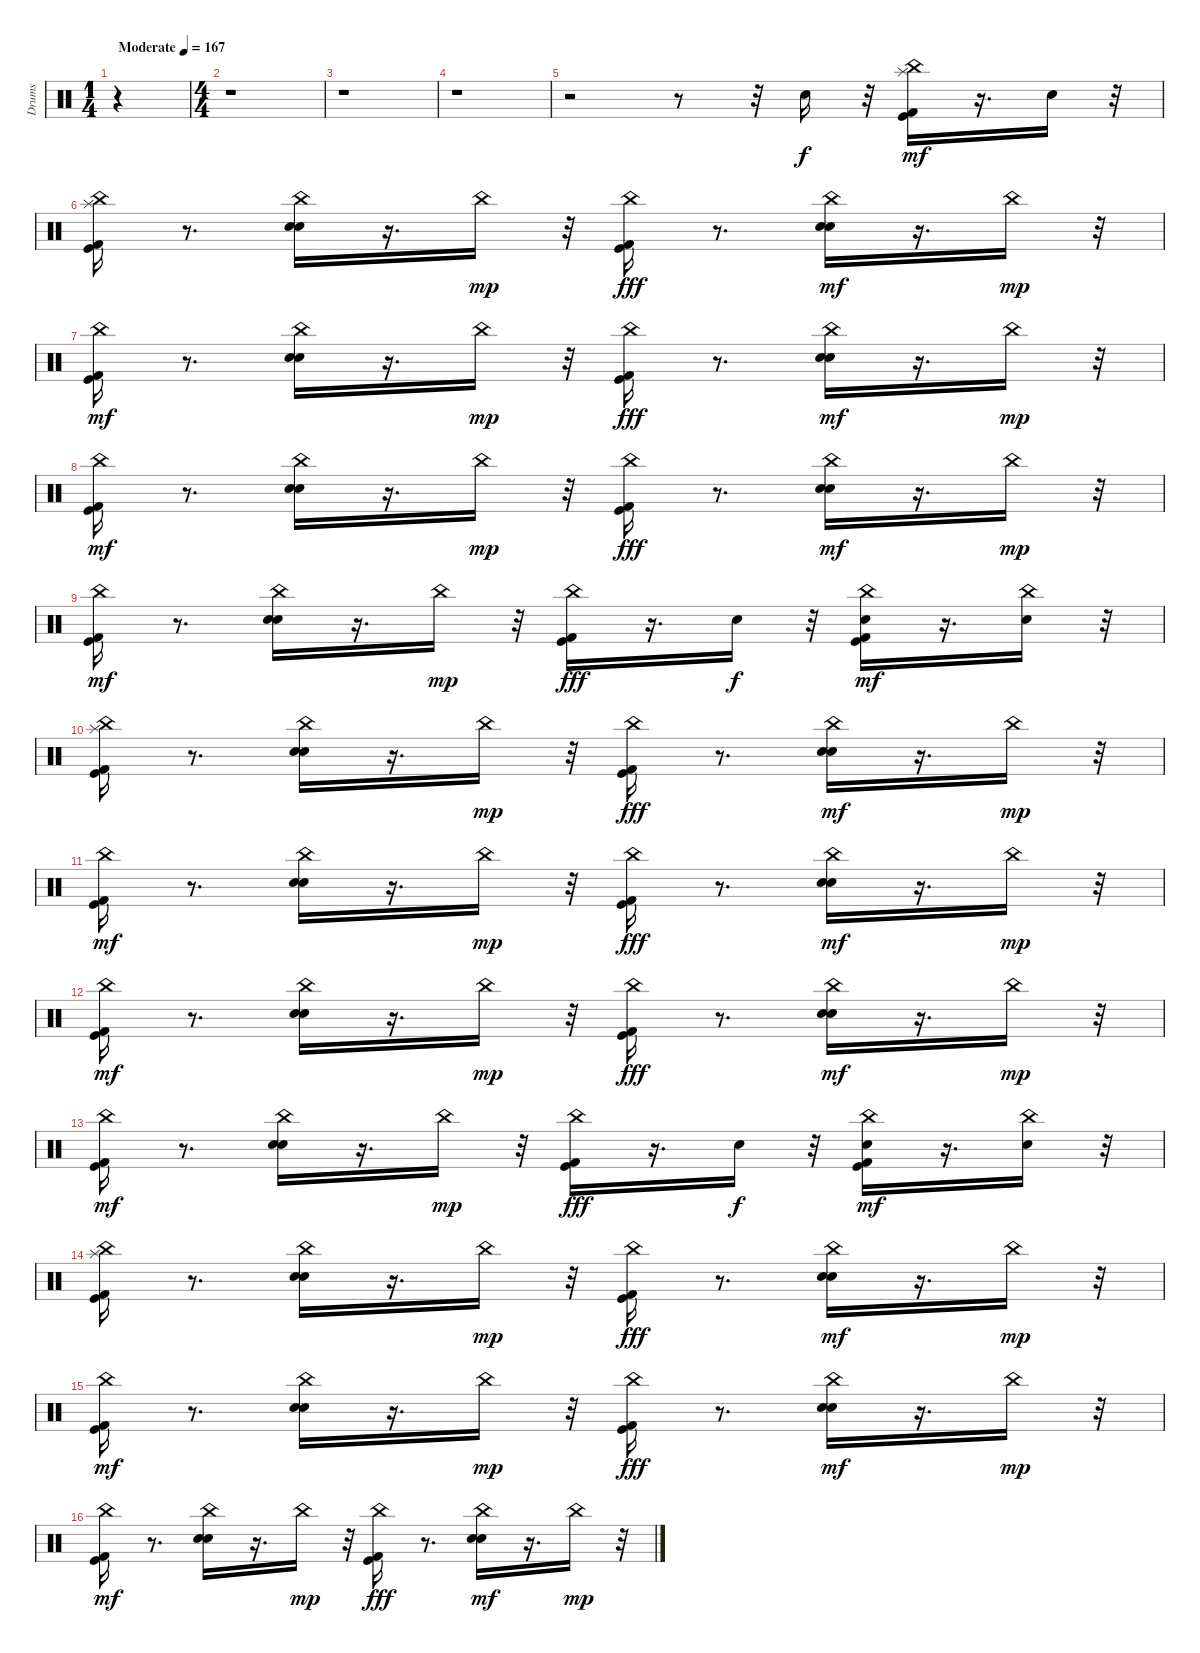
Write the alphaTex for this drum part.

\track ("Drums" "Drums") {instrument percussion}
\staff {score}
\articulation defaults
\ts (1 4)
\tempo (167 "Moderate")
\clef neutral
\ks c
r.4{dy f} |
\ts (4 4)
r.1 |
r.1 |
r.1 |
r.2 r.8 r.32 "Snare (hit) 2".16 r.32 ("China (hit)" "Kick (hit) 2" "Kick (hit)" "Splash (hit)").16{dy mf} r.16{d} "Snare (hit) 2".16 r.32 |
("Kick (hit) 2" "Kick (hit)" "Splash (hit)" "China (hit)").16 r.8{d} ("Snare (hit) 2" "China (hit)" "Hand Clap (hit)").16 r.16{d} "China (hit)".16{dy mp} r.32 ("China (hit)" "Kick (hit) 2" "Kick (hit)").16{dy fff} r.8{d} ("Snare (hit) 2" "China (hit)" "Hand Clap (hit)").16{dy mf} r.16{d} "China (hit)".16{dy mp} r.32 |
("Kick (hit) 2" "Kick (hit)" "China (hit)").16{dy mf} r.8{d} ("Snare (hit) 2" "China (hit)" "Hand Clap (hit)").16 r.16{d} "China (hit)".16{dy mp} r.32 ("China (hit)" "Kick (hit) 2" "Kick (hit)").16{dy fff} r.8{d} ("Snare (hit) 2" "China (hit)" "Hand Clap (hit)").16{dy mf} r.16{d} "China (hit)".16{dy mp} r.32 |
("Kick (hit) 2" "Kick (hit)" "China (hit)").16{dy mf} r.8{d} ("Snare (hit) 2" "China (hit)" "Hand Clap (hit)").16 r.16{d} "China (hit)".16{dy mp} r.32 ("China (hit)" "Kick (hit) 2" "Kick (hit)").16{dy fff} r.8{d} ("Snare (hit) 2" "China (hit)" "Hand Clap (hit)").16{dy mf} r.16{d} "China (hit)".16{dy mp} r.32 |
("Kick (hit) 2" "Kick (hit)" "China (hit)").16{dy mf} r.8{d} ("Snare (hit) 2" "China (hit)" "Hand Clap (hit)").16 r.16{d} "China (hit)".16{dy mp} r.32 ("China (hit)" "Kick (hit) 2" "Kick (hit)").16{dy fff} r.16{d} "Snare (hit) 2".16{dy f} r.32 ("China (hit)" "Kick (hit) 2" "Kick (hit)" "Hand Clap (hit)").16{dy mf} r.16{d} ("China (hit)" "Snare (hit) 2").16 r.32 |
("Kick (hit) 2" "Kick (hit)" "Splash (hit)" "China (hit)").16 r.8{d} ("Snare (hit) 2" "China (hit)" "Hand Clap (hit)").16 r.16{d} "China (hit)".16{dy mp} r.32 ("China (hit)" "Kick (hit) 2" "Kick (hit)").16{dy fff} r.8{d} ("Snare (hit) 2" "China (hit)" "Hand Clap (hit)").16{dy mf} r.16{d} "China (hit)".16{dy mp} r.32 |
("Kick (hit) 2" "Kick (hit)" "China (hit)").16{dy mf} r.8{d} ("Snare (hit) 2" "China (hit)" "Hand Clap (hit)").16 r.16{d} "China (hit)".16{dy mp} r.32 ("China (hit)" "Kick (hit) 2" "Kick (hit)").16{dy fff} r.8{d} ("Snare (hit) 2" "China (hit)" "Hand Clap (hit)").16{dy mf} r.16{d} "China (hit)".16{dy mp} r.32 |
("Kick (hit) 2" "Kick (hit)" "China (hit)").16{dy mf} r.8{d} ("Snare (hit) 2" "China (hit)" "Hand Clap (hit)").16 r.16{d} "China (hit)".16{dy mp} r.32 ("China (hit)" "Kick (hit) 2" "Kick (hit)").16{dy fff} r.8{d} ("Snare (hit) 2" "China (hit)" "Hand Clap (hit)").16{dy mf} r.16{d} "China (hit)".16{dy mp} r.32 |
("Kick (hit) 2" "Kick (hit)" "China (hit)").16{dy mf} r.8{d} ("Snare (hit) 2" "China (hit)" "Hand Clap (hit)").16 r.16{d} "China (hit)".16{dy mp} r.32 ("China (hit)" "Kick (hit) 2" "Kick (hit)").16{dy fff} r.16{d} "Snare (hit) 2".16{dy f} r.32 ("China (hit)" "Kick (hit) 2" "Kick (hit)" "Hand Clap (hit)").16{dy mf} r.16{d} ("China (hit)" "Snare (hit) 2").16 r.32 |
("Kick (hit) 2" "Kick (hit)" "Splash (hit)" "China (hit)").16 r.8{d} ("Snare (hit) 2" "China (hit)" "Hand Clap (hit)").16 r.16{d} "China (hit)".16{dy mp} r.32 ("China (hit)" "Kick (hit) 2" "Kick (hit)").16{dy fff} r.8{d} ("Snare (hit) 2" "China (hit)" "Hand Clap (hit)").16{dy mf} r.16{d} "China (hit)".16{dy mp} r.32 |
("Kick (hit) 2" "Kick (hit)" "China (hit)").16{dy mf} r.8{d} ("Snare (hit) 2" "China (hit)" "Hand Clap (hit)").16 r.16{d} "China (hit)".16{dy mp} r.32 ("China (hit)" "Kick (hit) 2" "Kick (hit)").16{dy fff} r.8{d} ("Snare (hit) 2" "China (hit)" "Hand Clap (hit)").16{dy mf} r.16{d} "China (hit)".16{dy mp} r.32 |
("Kick (hit) 2" "Kick (hit)" "China (hit)").16{dy mf} r.8{d} ("Snare (hit) 2" "China (hit)" "Hand Clap (hit)").16 r.16{d} "China (hit)".16{dy mp} r.32 ("China (hit)" "Kick (hit) 2" "Kick (hit)").16{dy fff} r.8{d} ("Snare (hit) 2" "China (hit)" "Hand Clap (hit)").16{dy mf} r.16{d} "China (hit)".16{dy mp} r.32
